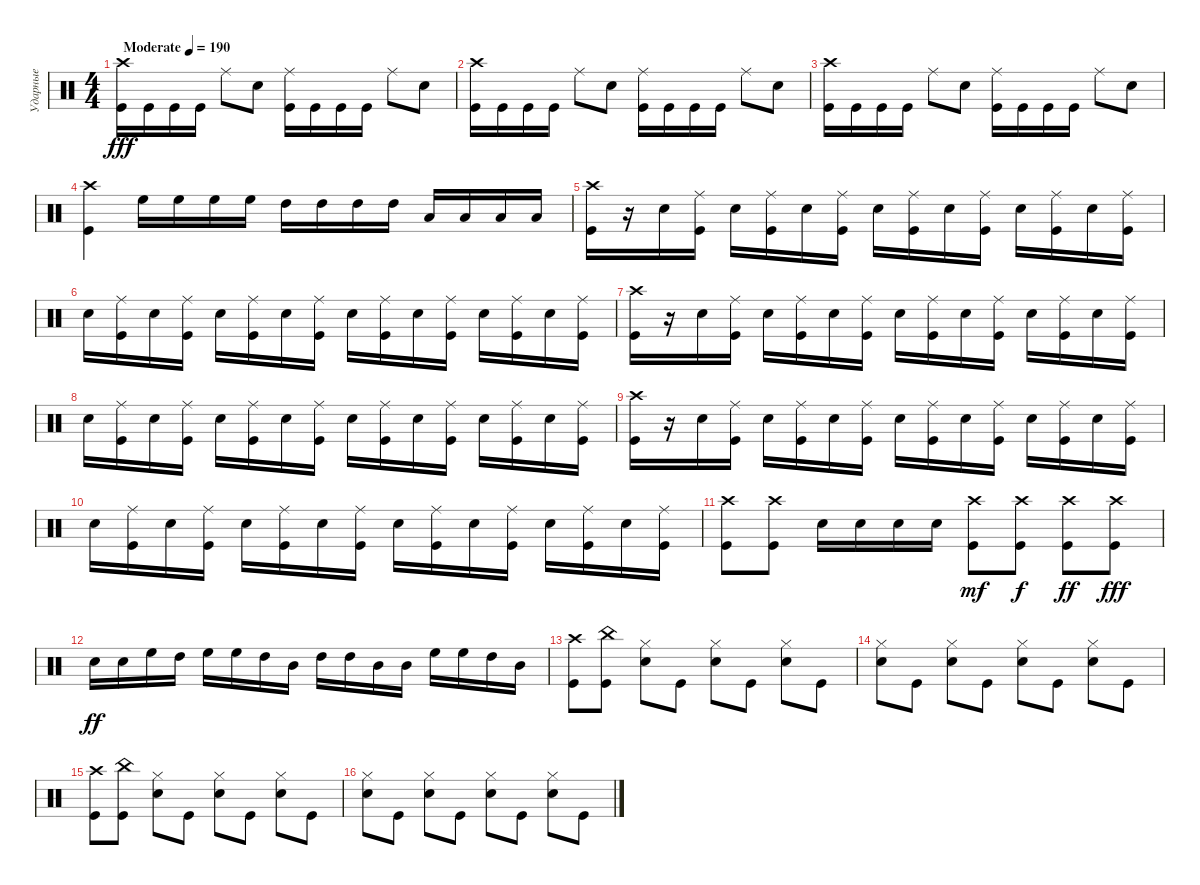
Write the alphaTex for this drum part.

\track ("Ударные" "Ударные") {instrument percussion}
\staff {score}
\articulation defaults
\ts (4 4)
\tempo (190 "Moderate")
\clef neutral
\ks c
("Kick (hit)" "Crash high (hit)").16{dy fff} "Kick (hit)".16 "Kick (hit)".16 "Kick (hit)".16 "Ride (middle)".8 "Snare (hit) 2".8 ("Ride (middle)" "Kick (hit)").16 "Kick (hit)".16 "Kick (hit)".16 "Kick (hit)".16 "Ride (middle)".8 "Snare (hit) 2".8 |
("Kick (hit)" "Crash high (hit)").16 "Kick (hit)".16 "Kick (hit)".16 "Kick (hit)".16 "Ride (middle)".8 "Snare (hit) 2".8 ("Ride (middle)" "Kick (hit)").16 "Kick (hit)".16 "Kick (hit)".16 "Kick (hit)".16 "Ride (middle)".8 "Snare (hit) 2".8 |
("Kick (hit)" "Crash high (hit)").16 "Kick (hit)".16 "Kick (hit)".16 "Kick (hit)".16 "Ride (middle)".8 "Snare (hit) 2".8 ("Ride (middle)" "Kick (hit)").16 "Kick (hit)".16 "Kick (hit)".16 "Kick (hit)".16 "Ride (middle)".8 "Snare (hit) 2".8 |
("Kick (hit)" "Crash high (hit)").4 "High Floor Tom (hit)".16 "High Floor Tom (hit)".16 "High Floor Tom (hit)".16 "High Floor Tom (hit)".16 "High Tom (hit)".16 "High Tom (hit)".16 "High Tom (hit)".16 "High Tom (hit)".16 "Low Tom (hit)".16 "Low Tom (hit)".16 "Low Tom (hit)".16 "Low Tom (hit)".16 |
("Kick (hit)" "Crash high (hit)").16 r.16 "Snare (hit) 2".16 ("Kick (hit)" "Ride (middle)").16 "Snare (hit) 2".16 ("Kick (hit)" "Ride (middle)").16 "Snare (hit) 2".16 ("Kick (hit)" "Ride (middle)").16 "Snare (hit) 2".16 ("Kick (hit)" "Ride (middle)").16 "Snare (hit) 2".16 ("Kick (hit)" "Ride (middle)").16 "Snare (hit) 2".16 ("Kick (hit)" "Ride (middle)").16 "Snare (hit) 2".16 ("Kick (hit)" "Ride (middle)").16 |
"Snare (hit) 2".16 ("Kick (hit)" "Ride (middle)").16 "Snare (hit) 2".16 ("Kick (hit)" "Ride (middle)").16 "Snare (hit) 2".16 ("Kick (hit)" "Ride (middle)").16 "Snare (hit) 2".16 ("Kick (hit)" "Ride (middle)").16 "Snare (hit) 2".16 ("Kick (hit)" "Ride (middle)").16 "Snare (hit) 2".16 ("Kick (hit)" "Ride (middle)").16 "Snare (hit) 2".16 ("Kick (hit)" "Ride (middle)").16 "Snare (hit) 2".16 ("Kick (hit)" "Ride (middle)").16 |
("Kick (hit)" "Crash high (hit)").16 r.16 "Snare (hit) 2".16 ("Kick (hit)" "Ride (middle)").16 "Snare (hit) 2".16 ("Kick (hit)" "Ride (middle)").16 "Snare (hit) 2".16 ("Kick (hit)" "Ride (middle)").16 "Snare (hit) 2".16 ("Kick (hit)" "Ride (middle)").16 "Snare (hit) 2".16 ("Kick (hit)" "Ride (middle)").16 "Snare (hit) 2".16 ("Kick (hit)" "Ride (middle)").16 "Snare (hit) 2".16 ("Kick (hit)" "Ride (middle)").16 |
"Snare (hit) 2".16 ("Kick (hit)" "Ride (middle)").16 "Snare (hit) 2".16 ("Kick (hit)" "Ride (middle)").16 "Snare (hit) 2".16 ("Kick (hit)" "Ride (middle)").16 "Snare (hit) 2".16 ("Kick (hit)" "Ride (middle)").16 "Snare (hit) 2".16 ("Kick (hit)" "Ride (middle)").16 "Snare (hit) 2".16 ("Kick (hit)" "Ride (middle)").16 "Snare (hit) 2".16 ("Kick (hit)" "Ride (middle)").16 "Snare (hit) 2".16 ("Kick (hit)" "Ride (middle)").16 |
("Kick (hit)" "Crash high (hit)").16 r.16 "Snare (hit) 2".16 ("Kick (hit)" "Ride (middle)").16 "Snare (hit) 2".16 ("Kick (hit)" "Ride (middle)").16 "Snare (hit) 2".16 ("Kick (hit)" "Ride (middle)").16 "Snare (hit) 2".16 ("Kick (hit)" "Ride (middle)").16 "Snare (hit) 2".16 ("Kick (hit)" "Ride (middle)").16 "Snare (hit) 2".16 ("Kick (hit)" "Ride (middle)").16 "Snare (hit) 2".16 ("Kick (hit)" "Ride (middle)").16 |
"Snare (hit) 2".16 ("Kick (hit)" "Ride (middle)").16 "Snare (hit) 2".16 ("Kick (hit)" "Ride (middle)").16 "Snare (hit) 2".16 ("Kick (hit)" "Ride (middle)").16 "Snare (hit) 2".16 ("Kick (hit)" "Ride (middle)").16 "Snare (hit) 2".16 ("Kick (hit)" "Ride (middle)").16 "Snare (hit) 2".16 ("Kick (hit)" "Ride (middle)").16 "Snare (hit) 2".16 ("Kick (hit)" "Ride (middle)").16 "Snare (hit) 2".16 ("Kick (hit)" "Ride (middle)").16 |
("Crash high (hit)" "Kick (hit)").8 ("Kick (hit)" "Crash high (hit)").8 "Snare (hit) 2".16 "Snare (hit) 2".16 "Snare (hit) 2".16 "Snare (hit) 2".16 ("Crash high (hit)" "Kick (hit)").8{dy mf} ("Crash high (hit)" "Kick (hit)").8{dy f} ("Kick (hit)" "Crash high (hit)").8{dy ff} ("Crash high (hit)" "Kick (hit)").8{dy fff} |
"Snare (hit) 2".16{dy ff} "Snare (hit) 2".16 "High Floor Tom (hit)".16 "High Tom (hit)".16 "High Floor Tom (hit)".16 "High Floor Tom (hit)".16 "High Tom (hit)".16 "Mid Tom (hit)".16 "High Tom (hit)".16 "High Tom (hit)".16 "Mid Tom (hit)".16 "Mid Tom (hit)".16 "High Floor Tom (hit)".16 "High Floor Tom (hit)".16 "High Tom (hit)".16 "Mid Tom (hit)".16 |
("Crash high (hit)" "Kick (hit)").8 ("China (hit)" "Kick (hit)").8 ("Hi-Hat (closed)" "Snare (hit) 2").8 "Kick (hit)".8 ("Hi-Hat (closed)" "Snare (hit) 2").8 "Kick (hit)".8 ("Snare (hit) 2" "Hi-Hat (closed)").8 "Kick (hit)".8 |
("Hi-Hat (closed)" "Snare (hit) 2").8 "Kick (hit)".8 ("Hi-Hat (closed)" "Snare (hit) 2").8 "Kick (hit)".8 ("Hi-Hat (closed)" "Snare (hit) 2").8 "Kick (hit)".8 ("Hi-Hat (closed)" "Snare (hit) 2").8 "Kick (hit)".8 |
("Crash high (hit)" "Kick (hit)").8 ("China (hit)" "Kick (hit)").8 ("Hi-Hat (closed)" "Snare (hit) 2").8 "Kick (hit)".8 ("Hi-Hat (closed)" "Snare (hit) 2").8 "Kick (hit)".8 ("Snare (hit) 2" "Hi-Hat (closed)").8 "Kick (hit)".8 |
("Hi-Hat (closed)" "Snare (hit) 2").8 "Kick (hit)".8 ("Hi-Hat (closed)" "Snare (hit) 2").8 "Kick (hit)".8 ("Hi-Hat (closed)" "Snare (hit) 2").8 "Kick (hit)".8 ("Hi-Hat (closed)" "Snare (hit) 2").8 "Kick (hit)".8
